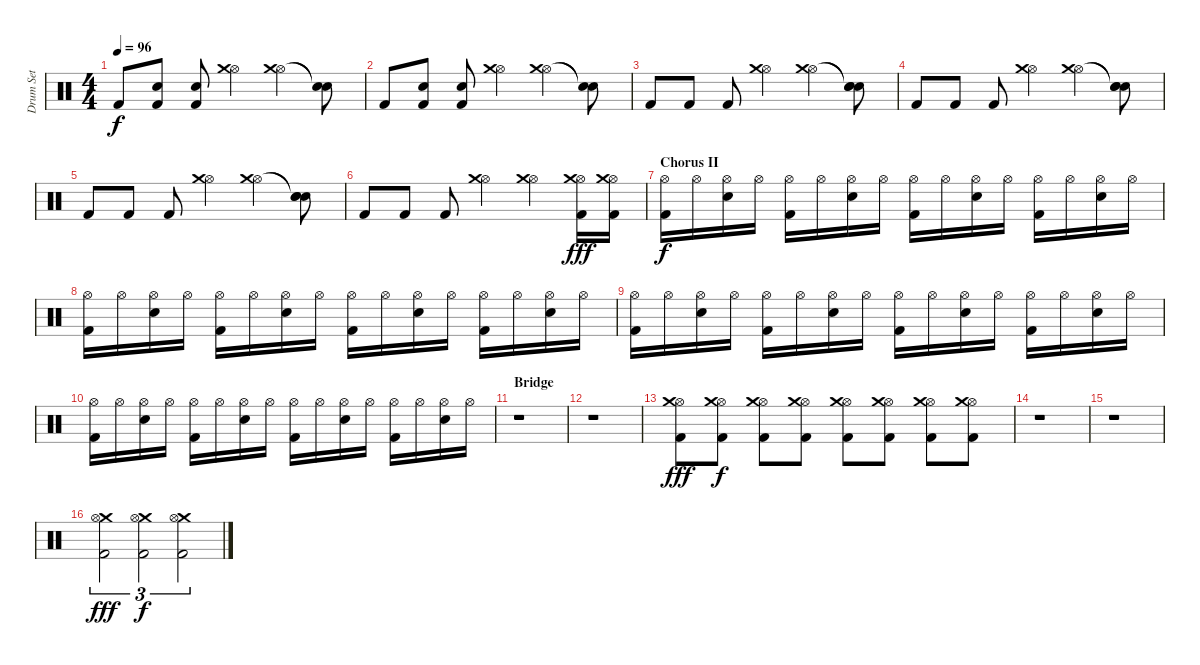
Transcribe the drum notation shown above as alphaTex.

\track ("Drum Set" "Drum Set") {instrument percussion}
\staff {score}
\articulation defaults
\ts (4 4)
\tempo 96
\clef neutral
\ks c "Kick (hit) 2".8{dy f}
("Snare (hit) 2" "Kick (hit) 2").8 ("Snare (hit) 2" "Kick (hit) 2").8 ("Hi-Hat (open)" "Crash medium (hit)").4 ("Hi-Hat (open)" "Crash medium (hit)").4 ("Snare (hit)"{t} "Snare (hit)"{t}).8 |
"Kick (hit) 2".8 ("Snare (hit) 2" "Kick (hit) 2").8 ("Snare (hit) 2" "Kick (hit) 2").8 ("Hi-Hat (open)" "Crash medium (hit)").4 ("Hi-Hat (open)" "Crash medium (hit)").4 ("Snare (hit)"{t} "Snare (hit)"{t}).8 |
"Kick (hit) 2".8 "Kick (hit) 2".8 "Kick (hit) 2".8 ("Hi-Hat (open)" "Crash medium (hit)").4 ("Hi-Hat (open)" "Crash medium (hit)").4 ("Snare (hit)"{t} "Snare (hit)"{t} "Snare (hit) 2").8 |
"Kick (hit) 2".8 "Kick (hit) 2".8 "Kick (hit) 2".8 ("Hi-Hat (open)" "Crash medium (hit)").4 ("Hi-Hat (open)" "Crash medium (hit)").4 ("Snare (hit)"{t} "Snare (hit)"{t} "Snare (hit) 2").8 |
"Kick (hit) 2".8 "Kick (hit) 2".8 "Kick (hit) 2".8 ("Hi-Hat (open)" "Crash medium (hit)").4 ("Hi-Hat (open)" "Crash medium (hit)").4 ("Snare (hit)"{t} "Snare (hit)"{t} "Snare (hit) 2").8 |
"Kick (hit) 2".8 "Kick (hit) 2".8 "Kick (hit) 2".8 ("Hi-Hat (open)" "Crash medium (hit)").4 ("Hi-Hat (open)" "Crash medium (hit)").4 ("Hi-Hat (open)" "Crash medium (hit)" "Kick (hit) 2").16{dy fff} ("Hi-Hat (open)" "Crash medium (hit)" "Kick (hit) 2").16 |
\section ("" "Chorus II")
("Hi-Hat (open)" "Kick (hit) 2").16{dy f} "Hi-Hat (open)".16 ("Hi-Hat (open)" "Snare (hit) 2").16 "Hi-Hat (open)".16 ("Hi-Hat (open)" "Kick (hit) 2").16 "Hi-Hat (open)".16 ("Hi-Hat (open)" "Snare (hit) 2").16 "Hi-Hat (open)".16 ("Hi-Hat (open)" "Kick (hit) 2").16 "Hi-Hat (open)".16 ("Hi-Hat (open)" "Snare (hit) 2").16 "Hi-Hat (open)".16 ("Hi-Hat (open)" "Kick (hit) 2").16 "Hi-Hat (open)".16 ("Hi-Hat (open)" "Snare (hit) 2").16 "Hi-Hat (open)".16 |
("Hi-Hat (open)" "Kick (hit) 2").16 "Hi-Hat (open)".16 ("Hi-Hat (open)" "Snare (hit) 2").16 "Hi-Hat (open)".16 ("Hi-Hat (open)" "Kick (hit) 2").16 "Hi-Hat (open)".16 ("Hi-Hat (open)" "Snare (hit) 2").16 "Hi-Hat (open)".16 ("Hi-Hat (open)" "Kick (hit) 2").16 "Hi-Hat (open)".16 ("Hi-Hat (open)" "Snare (hit) 2").16 "Hi-Hat (open)".16 ("Hi-Hat (open)" "Kick (hit) 2").16 "Hi-Hat (open)".16 ("Hi-Hat (open)" "Snare (hit) 2").16 "Hi-Hat (open)".16 |
("Hi-Hat (open)" "Kick (hit) 2").16 "Hi-Hat (open)".16 ("Hi-Hat (open)" "Snare (hit) 2").16 "Hi-Hat (open)".16 ("Hi-Hat (open)" "Kick (hit) 2").16 "Hi-Hat (open)".16 ("Hi-Hat (open)" "Snare (hit) 2").16 "Hi-Hat (open)".16 ("Hi-Hat (open)" "Kick (hit) 2").16 "Hi-Hat (open)".16 ("Hi-Hat (open)" "Snare (hit) 2").16 "Hi-Hat (open)".16 ("Hi-Hat (open)" "Kick (hit) 2").16 "Hi-Hat (open)".16 ("Hi-Hat (open)" "Snare (hit) 2").16 "Hi-Hat (open)".16 |
("Hi-Hat (open)" "Kick (hit) 2").16 "Hi-Hat (open)".16 ("Hi-Hat (open)" "Snare (hit) 2").16 "Hi-Hat (open)".16 ("Hi-Hat (open)" "Kick (hit) 2").16 "Hi-Hat (open)".16 ("Hi-Hat (open)" "Snare (hit) 2").16 "Hi-Hat (open)".16 ("Hi-Hat (open)" "Kick (hit) 2").16 "Hi-Hat (open)".16 ("Hi-Hat (open)" "Snare (hit) 2").16 "Hi-Hat (open)".16 ("Hi-Hat (open)" "Kick (hit) 2").16 "Hi-Hat (open)".16 ("Hi-Hat (open)" "Snare (hit) 2").16 "Hi-Hat (open)".16 |
\section ("" "Bridge")
r.1 |
r.1 |
("Hi-Hat (open)" "Crash medium (hit)" "Kick (hit) 2").8{dy fff} ("Hi-Hat (open)" "Crash medium (hit)" "Kick (hit) 2").8{dy f} ("Hi-Hat (open)" "Crash medium (hit)" "Kick (hit) 2").8 ("Hi-Hat (open)" "Crash medium (hit)" "Kick (hit) 2").8 ("Hi-Hat (open)" "Crash medium (hit)" "Kick (hit) 2").8 ("Hi-Hat (open)" "Crash medium (hit)" "Kick (hit) 2").8 ("Hi-Hat (open)" "Crash medium (hit)" "Kick (hit) 2").8 ("Hi-Hat (open)" "Crash medium (hit)" "Kick (hit) 2").8 |
r.1 |
r.1 |
("Crash medium (hit)" "Hi-Hat (open)" "Kick (hit) 2").2{tu (3 2) dy fff} ("Crash medium (hit)" "Hi-Hat (open)" "Kick (hit) 2").2{tu (3 2) dy f} ("Crash medium (hit)" "Hi-Hat (open)" "Kick (hit) 2").2{tu (3 2)}
